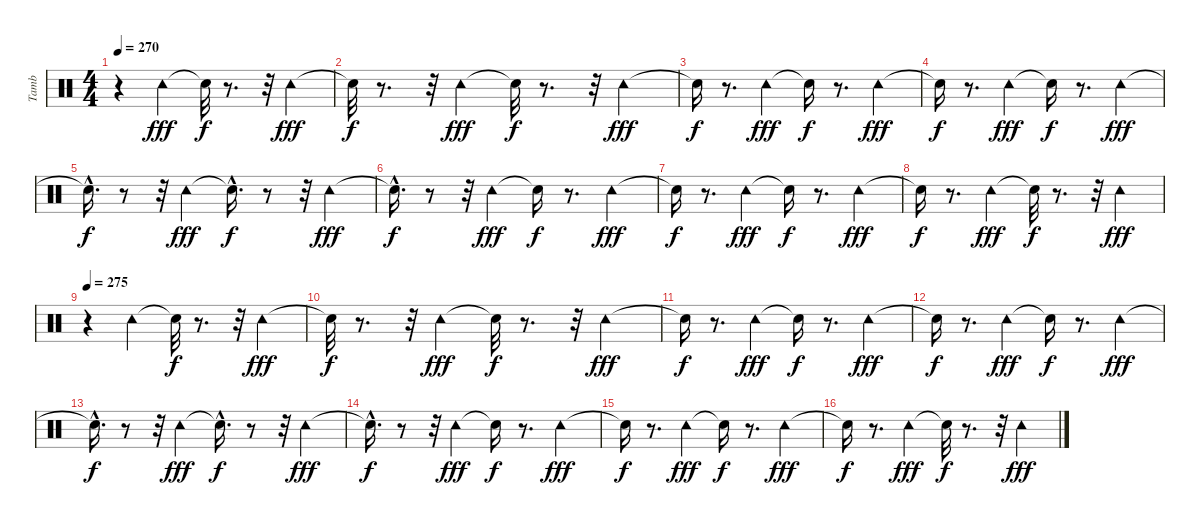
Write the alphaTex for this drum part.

\track ("Tamb" "Tamb") {instrument percussion}
\staff {score}
\articulation defaults
\ts (4 4)
\tempo 270
\clef neutral
\ks c
r.4{dy fff} "Tambourine (hit)".4 "Snare (hit)"{t}.32{dy f} r.8{d} r.32 "Tambourine (hit)".4{dy fff} |
"Snare (hit)"{t}.32{dy f} r.8{d} r.32 "Tambourine (hit)".4{dy fff} "Snare (hit)"{t}.32{dy f} r.8{d} r.32 "Tambourine (hit)".4{dy fff} |
"Snare (hit)"{t}.16{dy f} r.8{d} "Tambourine (hit)".4{dy fff} "Snare (hit)"{t}.16{dy f} r.8{d} "Tambourine (hit)".4{dy fff} |
"Snare (hit)"{t}.16{dy f} r.8{d} "Tambourine (hit)".4{dy fff} "Snare (hit)"{t}.16{dy f} r.8{d} "Tambourine (hit)".4{dy fff} |
"Snare (hit)"{hac t}.16{d dy f} r.8 r.32 "Tambourine (hit)".4{dy fff} "Snare (hit)"{hac t}.16{d dy f} r.8 r.32 "Tambourine (hit)".4{dy fff} |
"Snare (hit)"{hac t}.16{d dy f} r.8 r.32 "Tambourine (hit)".4{dy fff} "Snare (hit)"{t}.16{dy f} r.8{d} "Tambourine (hit)".4{dy fff} |
"Snare (hit)"{t}.16{dy f} r.8{d} "Tambourine (hit)".4{dy fff} "Snare (hit)"{t}.16{dy f} r.8{d} "Tambourine (hit)".4{dy fff} |
"Snare (hit)"{t}.16{dy f} r.8{d} "Tambourine (hit)".4{dy fff} "Snare (hit)"{t}.32{dy f} r.8{d} r.32 "Tambourine (hit)".4{dy fff} |
\tempo 275
r.4 "Tambourine (hit)".4 "Snare (hit)"{t}.32{dy f} r.8{d} r.32 "Tambourine (hit)".4{dy fff} |
"Snare (hit)"{t}.32{dy f} r.8{d} r.32 "Tambourine (hit)".4{dy fff} "Snare (hit)"{t}.32{dy f} r.8{d} r.32 "Tambourine (hit)".4{dy fff} |
"Snare (hit)"{t}.16{dy f} r.8{d} "Tambourine (hit)".4{dy fff} "Snare (hit)"{t}.16{dy f} r.8{d} "Tambourine (hit)".4{dy fff} |
"Snare (hit)"{t}.16{dy f} r.8{d} "Tambourine (hit)".4{dy fff} "Snare (hit)"{t}.16{dy f} r.8{d} "Tambourine (hit)".4{dy fff} |
"Snare (hit)"{hac t}.16{d dy f} r.8 r.32 "Tambourine (hit)".4{dy fff} "Snare (hit)"{hac t}.16{d dy f} r.8 r.32 "Tambourine (hit)".4{dy fff} |
"Snare (hit)"{hac t}.16{d dy f} r.8 r.32 "Tambourine (hit)".4{dy fff} "Snare (hit)"{t}.16{dy f} r.8{d} "Tambourine (hit)".4{dy fff} |
"Snare (hit)"{t}.16{dy f} r.8{d} "Tambourine (hit)".4{dy fff} "Snare (hit)"{t}.16{dy f} r.8{d} "Tambourine (hit)".4{dy fff} |
"Snare (hit)"{t}.16{dy f} r.8{d} "Tambourine (hit)".4{dy fff} "Snare (hit)"{t}.32{dy f} r.8{d} r.32 "Tambourine (hit)".4{dy fff}
